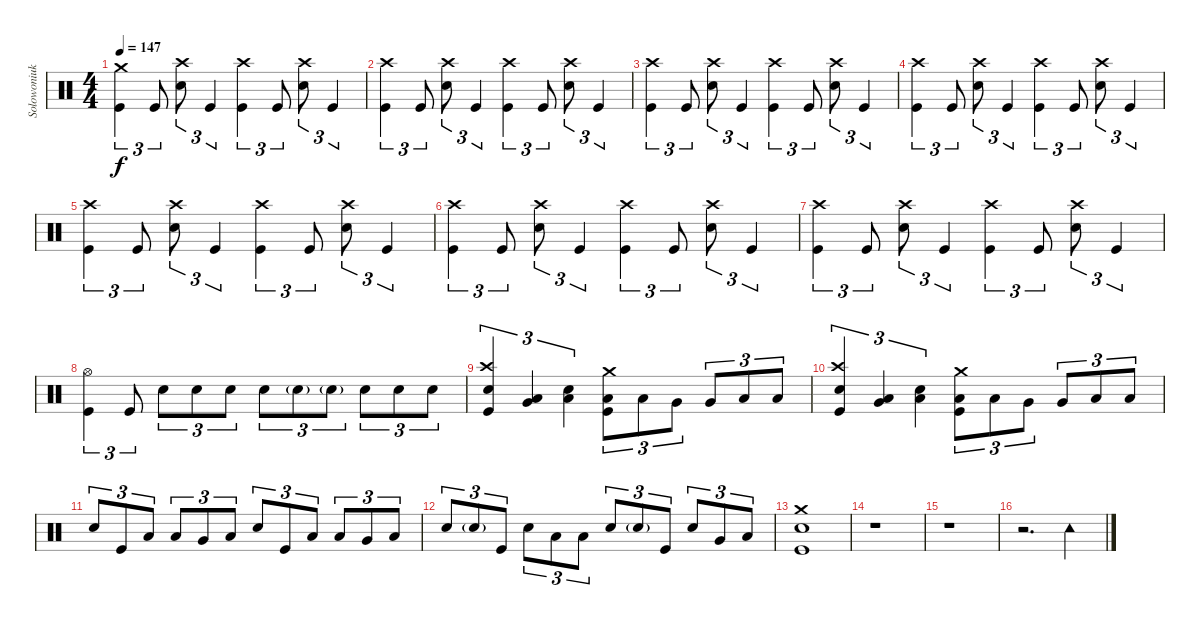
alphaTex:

\track ("Solowoniuk " "Solowoniuk") {instrument percussion}
\staff {score}
\articulation defaults
\ts (4 4)
\tempo 147
\clef neutral
\ks c
("Crash medium (hit)" "Kick (hit)").4{tu (3 2) dy f} "Kick (hit)".8{tu (3 2)} ("Crash high (hit)" "Snare (hit) 2").8{tu (3 2)} "Kick (hit)".4{tu (3 2)} ("Crash high (hit)" "Kick (hit)").4{tu (3 2)} "Kick (hit)".8{tu (3 2)} ("Crash high (hit)" "Snare (hit) 2").8{tu (3 2)} "Kick (hit)".4{tu (3 2)} |
("Crash high (hit)" "Kick (hit)").4{tu (3 2)} "Kick (hit)".8{tu (3 2)} ("Crash high (hit)" "Snare (hit) 2").8{tu (3 2)} "Kick (hit)".4{tu (3 2)} ("Crash high (hit)" "Kick (hit)").4{tu (3 2)} "Kick (hit)".8{tu (3 2)} ("Crash high (hit)" "Snare (hit) 2").8{tu (3 2)} "Kick (hit)".4{tu (3 2)} |
("Crash high (hit)" "Kick (hit)").4{tu (3 2)} "Kick (hit)".8{tu (3 2)} ("Crash high (hit)" "Snare (hit) 2").8{tu (3 2)} "Kick (hit)".4{tu (3 2)} ("Crash high (hit)" "Kick (hit)").4{tu (3 2)} "Kick (hit)".8{tu (3 2)} ("Crash high (hit)" "Snare (hit) 2").8{tu (3 2)} "Kick (hit)".4{tu (3 2)} |
("Crash high (hit)" "Kick (hit)").4{tu (3 2)} "Kick (hit)".8{tu (3 2)} ("Crash high (hit)" "Snare (hit) 2").8{tu (3 2)} "Kick (hit)".4{tu (3 2)} ("Crash high (hit)" "Kick (hit)").4{tu (3 2)} "Kick (hit)".8{tu (3 2)} ("Crash high (hit)" "Snare (hit) 2").8{tu (3 2)} "Kick (hit)".4{tu (3 2)} |
("Crash high (hit)" "Kick (hit)").4{tu (3 2)} "Kick (hit)".8{tu (3 2)} ("Crash high (hit)" "Snare (hit) 2").8{tu (3 2)} "Kick (hit)".4{tu (3 2)} ("Crash high (hit)" "Kick (hit)").4{tu (3 2)} "Kick (hit)".8{tu (3 2)} ("Crash high (hit)" "Snare (hit) 2").8{tu (3 2)} "Kick (hit)".4{tu (3 2)} |
("Crash high (hit)" "Kick (hit)").4{tu (3 2)} "Kick (hit)".8{tu (3 2)} ("Crash high (hit)" "Snare (hit) 2").8{tu (3 2)} "Kick (hit)".4{tu (3 2)} ("Crash high (hit)" "Kick (hit)").4{tu (3 2)} "Kick (hit)".8{tu (3 2)} ("Crash high (hit)" "Snare (hit) 2").8{tu (3 2)} "Kick (hit)".4{tu (3 2)} |
("Crash high (hit)" "Kick (hit)").4{tu (3 2)} "Kick (hit)".8{tu (3 2)} ("Crash high (hit)" "Snare (hit) 2").8{tu (3 2)} "Kick (hit)".4{tu (3 2)} ("Crash high (hit)" "Kick (hit)").4{tu (3 2)} "Kick (hit)".8{tu (3 2)} ("Crash high (hit)" "Snare (hit) 2").8{tu (3 2)} "Kick (hit)".4{tu (3 2)} |
("Hi-Hat (open)" "Kick (hit)").4{tu (3 2)} "Kick (hit)".8{tu (3 2)} "Snare (hit) 2".8{tu (3 2)} "Snare (hit) 2".8{tu (3 2)} "Snare (hit) 2".8{tu (3 2)} "Snare (hit) 2".8{tu (3 2)} "Snare (hit) 2"{g}.8{tu (3 2)} "Snare (hit) 2"{g}.8{tu (3 2)} "Snare (hit) 2".8{tu (3 2)} "Snare (hit) 2".8{tu (3 2)} "Snare (hit) 2".8{tu (3 2)} |
("Crash high (hit)" "Snare (hit) 2" "Kick (hit)").4{tu (3 2)} ("Very Low Tom (hit)" "Low Floor Tom (hit)").4{tu (3 2)} ("Low Floor Tom (hit)" "Snare (hit) 2").4{tu (3 2)} ("Crash medium (hit)" "Low Tom (hit)" "Kick (hit)").8{tu (3 2)} "Low Tom (hit)".8{tu (3 2)} "Very Low Tom (hit)".8{tu (3 2)} "Very Low Tom (hit)".8{tu (3 2)} "Low Floor Tom (hit)".8{tu (3 2)} "Low Floor Tom (hit)".8{tu (3 2)} |
("Crash high (hit)" "Snare (hit) 2" "Kick (hit)").4{tu (3 2)} ("Very Low Tom (hit)" "Low Floor Tom (hit)").4{tu (3 2)} ("Low Floor Tom (hit)" "Snare (hit) 2").4{tu (3 2)} ("Crash medium (hit)" "Low Tom (hit)" "Kick (hit)").8{tu (3 2)} "Low Tom (hit)".8{tu (3 2)} "Very Low Tom (hit)".8{tu (3 2)} "Very Low Tom (hit)".8{tu (3 2)} "Low Floor Tom (hit)".8{tu (3 2)} "Low Floor Tom (hit)".8{tu (3 2)} |
"Snare (hit) 2".8{tu (3 2)} "Kick (hit)".8{tu (3 2)} "Low Tom (hit)".8{tu (3 2)} "Low Tom (hit)".8{tu (3 2)} "Very Low Tom (hit)".8{tu (3 2)} "Low Floor Tom (hit)".8{tu (3 2)} "Snare (hit) 2".8{tu (3 2)} "Kick (hit)".8{tu (3 2)} "Low Tom (hit)".8{tu (3 2)} "Low Tom (hit)".8{tu (3 2)} "Very Low Tom (hit)".8{tu (3 2)} "Low Floor Tom (hit)".8{tu (3 2)} |
"Snare (hit) 2".8{tu (3 2)} "Snare (hit) 2"{g}.8{tu (3 2)} "Kick (hit)".8{tu (3 2)} "Snare (hit) 2".8{tu (3 2)} "Low Tom (hit)".8{tu (3 2)} "Low Floor Tom (hit)".8{tu (3 2)} "Snare (hit) 2".8{tu (3 2)} "Snare (hit) 2"{g}.8{tu (3 2)} "Kick (hit)".8{tu (3 2)} "Snare (hit) 2".8{tu (3 2)} "Very Low Tom (hit)".8{tu (3 2)} "Low Floor Tom (hit)".8{tu (3 2)} |
("Crash medium (hit)" "Snare (hit) 2" "Kick (hit)").1 |
r.1 |
r.1 |
r.2{d} "Tambourine (hit)".4
